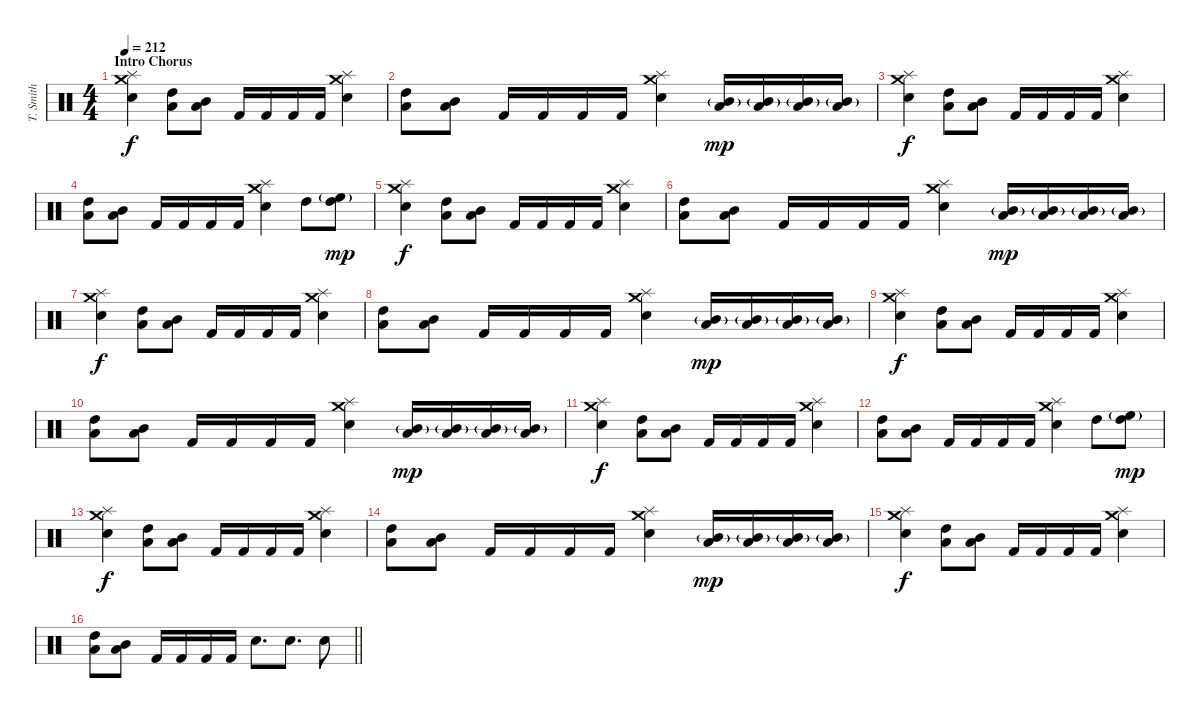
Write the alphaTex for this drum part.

\track ("T. Smith" "T. Smith") {instrument percussion}
\staff {score}
\articulation defaults
\ts (4 4)
\section ("" "Intro Chorus")
\tempo 212
\clef neutral
\ks c
("Crash medium (hit)" "Splash (hit)" "Electric Snare (hit)").4{dy f} ("High Tom (hit)" "Low Tom (hit)").8 ("Mid Tom (hit)" "Low Tom (hit)").8 "Kick (hit) 2".16 "Kick (hit) 2".16 "Kick (hit) 2".16 "Kick (hit) 2".16 ("Crash medium (hit)" "Splash (hit)" "Electric Snare (hit)").4 |
("High Tom (hit)" "Low Tom (hit)").8 ("Mid Tom (hit)" "Low Tom (hit)").8 "Kick (hit) 2".16 "Kick (hit) 2".16 "Kick (hit) 2".16 "Kick (hit) 2".16 ("Crash medium (hit)" "Splash (hit)" "Electric Snare (hit)").4 ("Mid Tom (hit)"{g} "Low Tom (hit)").16{dy mp} ("Mid Tom (hit)"{g} "Low Tom (hit)").16 ("Mid Tom (hit)"{g} "Low Tom (hit)").16 ("Mid Tom (hit)"{g} "Low Tom (hit)").16 |
("Crash medium (hit)" "Splash (hit)" "Electric Snare (hit)").4{dy f} ("High Tom (hit)" "Low Tom (hit)").8 ("Mid Tom (hit)" "Low Tom (hit)").8 "Kick (hit) 2".16 "Kick (hit) 2".16 "Kick (hit) 2".16 "Kick (hit) 2".16 ("Crash medium (hit)" "Splash (hit)" "Electric Snare (hit)").4 |
("High Tom (hit)" "Low Tom (hit)").8 ("Mid Tom (hit)" "Low Tom (hit)").8 "Kick (hit) 2".16 "Kick (hit) 2".16 "Kick (hit) 2".16 "Kick (hit) 2".16 ("Crash medium (hit)" "Splash (hit)" "Electric Snare (hit)").4 "High Tom (hit)".8 ("High Floor Tom (hit)"{g} "High Tom (hit)").8{dy mp} |
("Crash medium (hit)" "Splash (hit)" "Electric Snare (hit)").4{dy f} ("High Tom (hit)" "Low Tom (hit)").8 ("Mid Tom (hit)" "Low Tom (hit)").8 "Kick (hit) 2".16 "Kick (hit) 2".16 "Kick (hit) 2".16 "Kick (hit) 2".16 ("Crash medium (hit)" "Splash (hit)" "Electric Snare (hit)").4 |
("High Tom (hit)" "Low Tom (hit)").8 ("Mid Tom (hit)" "Low Tom (hit)").8 "Kick (hit) 2".16 "Kick (hit) 2".16 "Kick (hit) 2".16 "Kick (hit) 2".16 ("Crash medium (hit)" "Splash (hit)" "Electric Snare (hit)").4 ("Mid Tom (hit)"{g} "Low Tom (hit)").16{dy mp} ("Mid Tom (hit)"{g} "Low Tom (hit)").16 ("Mid Tom (hit)"{g} "Low Tom (hit)").16 ("Mid Tom (hit)"{g} "Low Tom (hit)").16 |
("Crash medium (hit)" "Splash (hit)" "Electric Snare (hit)").4{dy f} ("High Tom (hit)" "Low Tom (hit)").8 ("Mid Tom (hit)" "Low Tom (hit)").8 "Kick (hit) 2".16 "Kick (hit) 2".16 "Kick (hit) 2".16 "Kick (hit) 2".16 ("Crash medium (hit)" "Splash (hit)" "Electric Snare (hit)").4 |
("High Tom (hit)" "Low Tom (hit)").8 ("Mid Tom (hit)" "Low Tom (hit)").8 "Kick (hit) 2".16 "Kick (hit) 2".16 "Kick (hit) 2".16 "Kick (hit) 2".16 ("Crash medium (hit)" "Splash (hit)" "Electric Snare (hit)").4 ("Mid Tom (hit)"{g} "Low Tom (hit)").16{dy mp} ("Mid Tom (hit)"{g} "Low Tom (hit)").16 ("Mid Tom (hit)"{g} "Low Tom (hit)").16 ("Mid Tom (hit)"{g} "Low Tom (hit)").16 |
("Crash medium (hit)" "Splash (hit)" "Electric Snare (hit)").4{dy f} ("High Tom (hit)" "Low Tom (hit)").8 ("Mid Tom (hit)" "Low Tom (hit)").8 "Kick (hit) 2".16 "Kick (hit) 2".16 "Kick (hit) 2".16 "Kick (hit) 2".16 ("Crash medium (hit)" "Splash (hit)" "Electric Snare (hit)").4 |
("High Tom (hit)" "Low Tom (hit)").8 ("Mid Tom (hit)" "Low Tom (hit)").8 "Kick (hit) 2".16 "Kick (hit) 2".16 "Kick (hit) 2".16 "Kick (hit) 2".16 ("Crash medium (hit)" "Splash (hit)" "Electric Snare (hit)").4 ("Mid Tom (hit)"{g} "Low Tom (hit)").16{dy mp} ("Mid Tom (hit)"{g} "Low Tom (hit)").16 ("Mid Tom (hit)"{g} "Low Tom (hit)").16 ("Mid Tom (hit)"{g} "Low Tom (hit)").16 |
("Crash medium (hit)" "Splash (hit)" "Electric Snare (hit)").4{dy f} ("High Tom (hit)" "Low Tom (hit)").8 ("Mid Tom (hit)" "Low Tom (hit)").8 "Kick (hit) 2".16 "Kick (hit) 2".16 "Kick (hit) 2".16 "Kick (hit) 2".16 ("Crash medium (hit)" "Splash (hit)" "Electric Snare (hit)").4 |
("High Tom (hit)" "Low Tom (hit)").8 ("Mid Tom (hit)" "Low Tom (hit)").8 "Kick (hit) 2".16 "Kick (hit) 2".16 "Kick (hit) 2".16 "Kick (hit) 2".16 ("Crash medium (hit)" "Splash (hit)" "Electric Snare (hit)").4 "High Tom (hit)".8 ("High Floor Tom (hit)"{g} "High Tom (hit)").8{dy mp} |
("Crash medium (hit)" "Splash (hit)" "Electric Snare (hit)").4{dy f} ("High Tom (hit)" "Low Tom (hit)").8 ("Mid Tom (hit)" "Low Tom (hit)").8 "Kick (hit) 2".16 "Kick (hit) 2".16 "Kick (hit) 2".16 "Kick (hit) 2".16 ("Crash medium (hit)" "Splash (hit)" "Electric Snare (hit)").4 |
("High Tom (hit)" "Low Tom (hit)").8 ("Mid Tom (hit)" "Low Tom (hit)").8 "Kick (hit) 2".16 "Kick (hit) 2".16 "Kick (hit) 2".16 "Kick (hit) 2".16 ("Crash medium (hit)" "Splash (hit)" "Electric Snare (hit)").4 ("Mid Tom (hit)"{g} "Low Tom (hit)").16{dy mp} ("Mid Tom (hit)"{g} "Low Tom (hit)").16 ("Mid Tom (hit)"{g} "Low Tom (hit)").16 ("Mid Tom (hit)"{g} "Low Tom (hit)").16 |
("Crash medium (hit)" "Splash (hit)" "Electric Snare (hit)").4{dy f} ("High Tom (hit)" "Low Tom (hit)").8 ("Mid Tom (hit)" "Low Tom (hit)").8 "Kick (hit) 2".16 "Kick (hit) 2".16 "Kick (hit) 2".16 "Kick (hit) 2".16 ("Crash medium (hit)" "Splash (hit)" "Electric Snare (hit)").4 |
\barLineRight lightlight
("High Tom (hit)" "Low Tom (hit)").8 ("Mid Tom (hit)" "Low Tom (hit)").8 "Kick (hit) 2".16 "Kick (hit) 2".16 "Kick (hit) 2".16 "Kick (hit) 2".16 "Electric Snare (hit)".8{d} "Electric Snare (hit)".8{d} "Electric Snare (hit)".8
